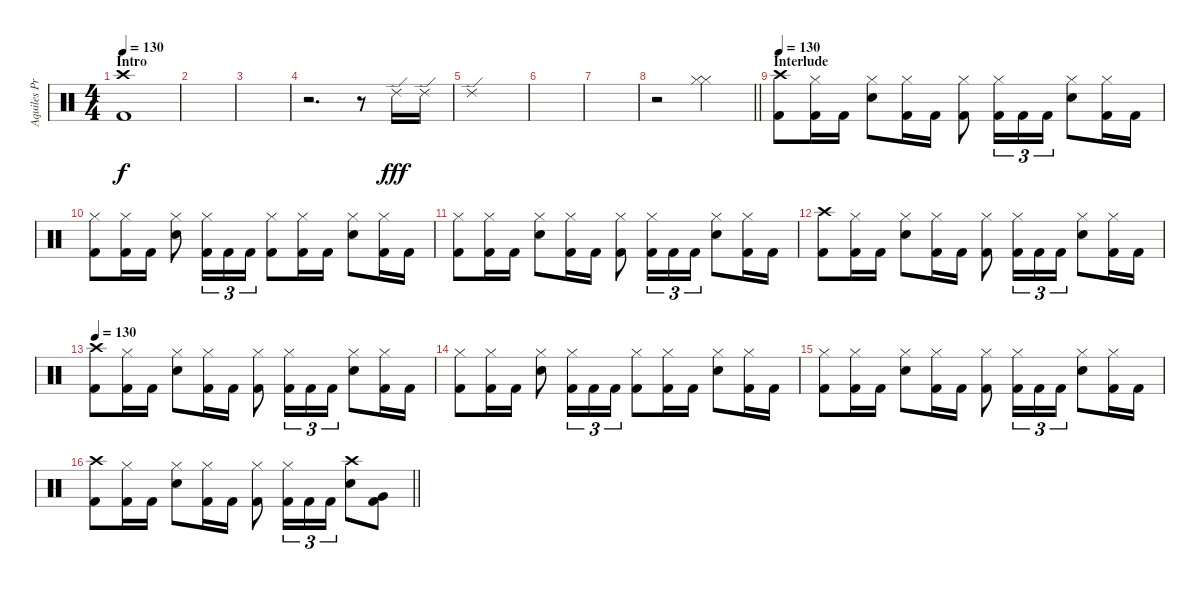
\track ("Aquiles Priester" "Aquiles Pr") {instrument percussion}
\staff {score}
\articulation defaults
\ts (4 4)
\section ("" "Intro")
\tempo 130
\clef neutral
\ks c
("Crash high (hit)" "Kick (hit) 2").1{dy f} |
|
|
r.2{d} r.8 "Ride (edge) 2".16{dy fff} "Ride (edge) 2".16 |
"Ride (edge) 2".1 |
|
|
\barLineRight lightlight
r.2 ("Hi-Hat (closed)" "Hi-Hat (closed)").2{volume 16} |
\section ("" "Interlude")
\tempo 130
("Crash high (hit)" "Kick (hit) 2").8 ("Hi-Hat (closed)" "Kick (hit) 2").16 "Kick (hit) 2".16 ("Hi-Hat (closed)" "Electric Snare (hit)").8 ("Hi-Hat (closed)" "Kick (hit) 2").16 "Kick (hit) 2".16 ("Hi-Hat (closed)" "Kick (hit) 2").8 ("Hi-Hat (closed)" "Kick (hit) 2").16{tu (3 2)} "Kick (hit) 2".16{tu (3 2)} "Kick (hit) 2".16{tu (3 2)} ("Hi-Hat (closed)" "Electric Snare (hit)").8 ("Hi-Hat (closed)" "Kick (hit) 2").16 "Kick (hit) 2".16 |
("Hi-Hat (closed)" "Kick (hit) 2").8 ("Hi-Hat (closed)" "Kick (hit) 2").16 "Kick (hit) 2".16 ("Hi-Hat (closed)" "Electric Snare (hit)").8 ("Hi-Hat (closed)" "Kick (hit) 2").16{tu (3 2)} "Kick (hit) 2".16{tu (3 2)} "Kick (hit) 2".16{tu (3 2)} ("Hi-Hat (closed)" "Kick (hit) 2").8 ("Hi-Hat (closed)" "Kick (hit) 2").16 "Kick (hit) 2".16 ("Hi-Hat (closed)" "Electric Snare (hit)").8 ("Hi-Hat (closed)" "Kick (hit) 2").16 "Kick (hit) 2".16 |
("Hi-Hat (closed)" "Kick (hit) 2").8 ("Hi-Hat (closed)" "Kick (hit) 2").16 "Kick (hit) 2".16 ("Hi-Hat (closed)" "Electric Snare (hit)").8 ("Hi-Hat (closed)" "Kick (hit) 2").16 "Kick (hit) 2".16 ("Hi-Hat (closed)" "Kick (hit) 2").8 ("Hi-Hat (closed)" "Kick (hit) 2").16{tu (3 2)} "Kick (hit) 2".16{tu (3 2)} "Kick (hit) 2".16{tu (3 2)} ("Hi-Hat (closed)" "Electric Snare (hit)").8 ("Hi-Hat (closed)" "Kick (hit) 2").16 "Kick (hit) 2".16 |
("Crash high (hit)" "Kick (hit) 2").8 ("Hi-Hat (closed)" "Kick (hit) 2").16 "Kick (hit) 2".16 ("Hi-Hat (closed)" "Electric Snare (hit)").8 ("Hi-Hat (closed)" "Kick (hit) 2").16 "Kick (hit) 2".16 ("Hi-Hat (closed)" "Kick (hit) 2").8 ("Hi-Hat (closed)" "Kick (hit) 2").16{tu (3 2)} "Kick (hit) 2".16{tu (3 2)} "Kick (hit) 2".16{tu (3 2)} ("Hi-Hat (closed)" "Electric Snare (hit)").8 ("Hi-Hat (closed)" "Kick (hit) 2").16 "Kick (hit) 2".16 |
\tempo 130
("Crash high (hit)" "Kick (hit) 2").8 ("Hi-Hat (closed)" "Kick (hit) 2").16 "Kick (hit) 2".16 ("Hi-Hat (closed)" "Electric Snare (hit)").8 ("Hi-Hat (closed)" "Kick (hit) 2").16 "Kick (hit) 2".16 ("Hi-Hat (closed)" "Kick (hit) 2").8 ("Hi-Hat (closed)" "Kick (hit) 2").16{tu (3 2)} "Kick (hit) 2".16{tu (3 2)} "Kick (hit) 2".16{tu (3 2)} ("Hi-Hat (closed)" "Electric Snare (hit)").8 ("Hi-Hat (closed)" "Kick (hit) 2").16 "Kick (hit) 2".16 |
("Hi-Hat (closed)" "Kick (hit) 2").8 ("Hi-Hat (closed)" "Kick (hit) 2").16 "Kick (hit) 2".16 ("Hi-Hat (closed)" "Electric Snare (hit)").8 ("Hi-Hat (closed)" "Kick (hit) 2").16{tu (3 2)} "Kick (hit) 2".16{tu (3 2)} "Kick (hit) 2".16{tu (3 2)} ("Hi-Hat (closed)" "Kick (hit) 2").8 ("Hi-Hat (closed)" "Kick (hit) 2").16 "Kick (hit) 2".16 ("Hi-Hat (closed)" "Electric Snare (hit)").8 ("Hi-Hat (closed)" "Kick (hit) 2").16 "Kick (hit) 2".16 |
("Hi-Hat (closed)" "Kick (hit) 2").8 ("Hi-Hat (closed)" "Kick (hit) 2").16 "Kick (hit) 2".16 ("Hi-Hat (closed)" "Electric Snare (hit)").8 ("Hi-Hat (closed)" "Kick (hit) 2").16 "Kick (hit) 2".16 ("Hi-Hat (closed)" "Kick (hit) 2").8 ("Hi-Hat (closed)" "Kick (hit) 2").16{tu (3 2)} "Kick (hit) 2".16{tu (3 2)} "Kick (hit) 2".16{tu (3 2)} ("Hi-Hat (closed)" "Electric Snare (hit)").8 ("Hi-Hat (closed)" "Kick (hit) 2").16 "Kick (hit) 2".16 |
\barLineRight lightlight
("Crash high (hit)" "Kick (hit) 2").8 ("Hi-Hat (closed)" "Kick (hit) 2").16 "Kick (hit) 2".16 ("Hi-Hat (closed)" "Electric Snare (hit)").8 ("Hi-Hat (closed)" "Kick (hit) 2").16 "Kick (hit) 2".16 ("Hi-Hat (closed)" "Kick (hit) 2").8 ("Hi-Hat (closed)" "Kick (hit) 2").16{tu (3 2)} "Kick (hit) 2".16{tu (3 2)} "Kick (hit) 2".16{tu (3 2)} ("Crash high (hit)" "Electric Snare (hit)").8 ("Very Low Tom (hit)" "Kick (hit) 2").8
